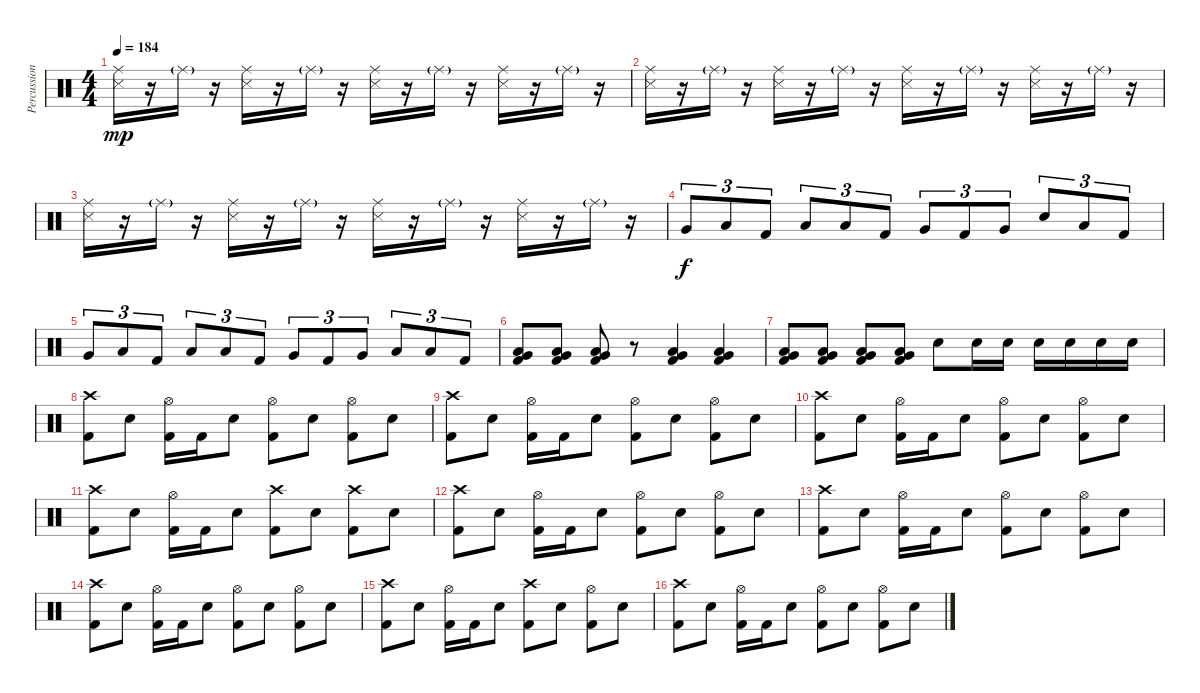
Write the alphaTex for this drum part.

\track ("Percussion" "Percussion") {instrument percussion}
\staff {score}
\articulation defaults
\ts (4 4)
\tempo 184
\clef neutral
\ks c
("Ride (middle)" "Snare (side stick) 3").16{dy mp} r.16 "Ride (middle)"{g}.16 r.16 ("Ride (middle)" "Snare (side stick) 3").16 r.16 "Ride (middle)"{g}.16 r.16 ("Ride (middle)" "Snare (side stick) 3").16 r.16 "Ride (middle)"{g}.16 r.16 ("Ride (middle)" "Snare (side stick) 3").16 r.16 "Ride (middle)"{g}.16 r.16 |
("Ride (middle)" "Snare (side stick) 3").16 r.16 "Ride (middle)"{g}.16 r.16 ("Ride (middle)" "Snare (side stick) 3").16 r.16 "Ride (middle)"{g}.16 r.16 ("Ride (middle)" "Snare (side stick) 3").16 r.16 "Ride (middle)"{g}.16 r.16 ("Ride (middle)" "Snare (side stick) 3").16 r.16 "Ride (middle)"{g}.16 r.16 |
("Ride (middle)" "Snare (side stick) 3").16 r.16 "Ride (middle)"{g}.16 r.16 ("Ride (middle)" "Snare (side stick) 3").16 r.16 "Ride (middle)"{g}.16 r.16 ("Ride (middle)" "Snare (side stick) 3").16 r.16 "Ride (middle)"{g}.16 r.16 ("Ride (middle)" "Snare (side stick) 3").16 r.16 "Ride (middle)"{g}.16 r.16 |
"Very Low Tom (hit)".8{tu (3 2) dy f} "Low Tom (hit)".8{tu (3 2)} "Kick (hit) 2".8{tu (3 2)} "Low Tom (hit)".8{tu (3 2)} "Low Tom (hit)".8{tu (3 2)} "Kick (hit) 2".8{tu (3 2)} "Very Low Tom (hit)".8{tu (3 2)} "Kick (hit) 2".8{tu (3 2)} "Very Low Tom (hit)".8{tu (3 2)} "Electric Snare (hit)".8{tu (3 2)} "Low Tom (hit)".8{tu (3 2)} "Kick (hit) 2".8{tu (3 2)} |
"Very Low Tom (hit)".8{tu (3 2)} "Low Tom (hit)".8{tu (3 2)} "Kick (hit) 2".8{tu (3 2)} "Low Tom (hit)".8{tu (3 2)} "Low Tom (hit)".8{tu (3 2)} "Kick (hit) 2".8{tu (3 2)} "Very Low Tom (hit)".8{tu (3 2)} "Kick (hit) 2".8{tu (3 2)} "Very Low Tom (hit)".8{tu (3 2)} "Low Tom (hit)".8{tu (3 2)} "Low Tom (hit)".8{tu (3 2)} "Kick (hit) 2".8{tu (3 2)} |
("Very Low Tom (hit)" "Low Tom (hit)" "Kick (hit) 2").8 ("Very Low Tom (hit)" "Low Tom (hit)" "Kick (hit) 2").8 ("Very Low Tom (hit)" "Low Tom (hit)" "Kick (hit) 2").8 r.8 ("Very Low Tom (hit)" "Low Tom (hit)" "Kick (hit) 2").4 ("Very Low Tom (hit)" "Low Tom (hit)" "Kick (hit) 2").4 |
("Very Low Tom (hit)" "Low Tom (hit)" "Kick (hit) 2").8 ("Very Low Tom (hit)" "Low Tom (hit)" "Kick (hit) 2").8 ("Very Low Tom (hit)" "Low Tom (hit)" "Kick (hit) 2").8 ("Very Low Tom (hit)" "Low Tom (hit)" "Kick (hit) 2").8 "Electric Snare (hit)".8 "Electric Snare (hit)".16 "Electric Snare (hit)".16 "Electric Snare (hit)".16 "Electric Snare (hit)".16 "Electric Snare (hit)".16 "Electric Snare (hit)".16 |
("Crash high (hit)" "Kick (hit) 2").8 "Electric Snare (hit)".8 ("Hi-Hat (open)" "Kick (hit) 2").16 "Kick (hit) 2".16 "Electric Snare (hit)".8 ("Hi-Hat (open)" "Kick (hit) 2").8 "Electric Snare (hit)".8 ("Hi-Hat (open)" "Kick (hit) 2").8 "Electric Snare (hit)".8 |
("Crash high (hit)" "Kick (hit) 2").8 "Electric Snare (hit)".8 ("Hi-Hat (open)" "Kick (hit) 2").16 "Kick (hit) 2".16 "Electric Snare (hit)".8 ("Hi-Hat (open)" "Kick (hit) 2").8 "Electric Snare (hit)".8 ("Hi-Hat (open)" "Kick (hit) 2").8 "Electric Snare (hit)".8 |
("Crash high (hit)" "Kick (hit) 2").8 "Electric Snare (hit)".8 ("Hi-Hat (open)" "Kick (hit) 2").16 "Kick (hit) 2".16 "Electric Snare (hit)".8 ("Hi-Hat (open)" "Kick (hit) 2").8 "Electric Snare (hit)".8 ("Hi-Hat (open)" "Kick (hit) 2").8 "Electric Snare (hit)".8 |
("Crash high (hit)" "Kick (hit) 2").8 "Electric Snare (hit)".8 ("Hi-Hat (open)" "Kick (hit) 2").16 "Kick (hit) 2".16 "Electric Snare (hit)".8 ("Crash high (hit)" "Kick (hit) 2").8 "Electric Snare (hit)".8 ("Crash high (hit)" "Kick (hit) 2").8 "Electric Snare (hit)".8 |
("Crash high (hit)" "Kick (hit) 2").8 "Electric Snare (hit)".8 ("Hi-Hat (open)" "Kick (hit) 2").16 "Kick (hit) 2".16 "Electric Snare (hit)".8 ("Hi-Hat (open)" "Kick (hit) 2").8 "Electric Snare (hit)".8 ("Hi-Hat (open)" "Kick (hit) 2").8 "Electric Snare (hit)".8 |
("Crash high (hit)" "Kick (hit) 2").8 "Electric Snare (hit)".8 ("Hi-Hat (open)" "Kick (hit) 2").16 "Kick (hit) 2".16 "Electric Snare (hit)".8 ("Hi-Hat (open)" "Kick (hit) 2").8 "Electric Snare (hit)".8 ("Hi-Hat (open)" "Kick (hit) 2").8 "Electric Snare (hit)".8 |
("Crash high (hit)" "Kick (hit) 2").8 "Electric Snare (hit)".8 ("Hi-Hat (open)" "Kick (hit) 2").16 "Kick (hit) 2".16 "Electric Snare (hit)".8 ("Hi-Hat (open)" "Kick (hit) 2").8 "Electric Snare (hit)".8 ("Hi-Hat (open)" "Kick (hit) 2").8 "Electric Snare (hit)".8 |
("Crash high (hit)" "Kick (hit) 2").8 "Electric Snare (hit)".8 ("Hi-Hat (open)" "Kick (hit) 2").16 "Kick (hit) 2".16 "Electric Snare (hit)".8 ("Crash high (hit)" "Kick (hit) 2").8 "Electric Snare (hit)".8 ("Hi-Hat (open)" "Kick (hit) 2").8 "Electric Snare (hit)".8 |
("Crash high (hit)" "Kick (hit) 2").8 "Electric Snare (hit)".8 ("Hi-Hat (open)" "Kick (hit) 2").16 "Kick (hit) 2".16 "Electric Snare (hit)".8 ("Hi-Hat (open)" "Kick (hit) 2").8 "Electric Snare (hit)".8 ("Hi-Hat (open)" "Kick (hit) 2").8 "Electric Snare (hit)".8
